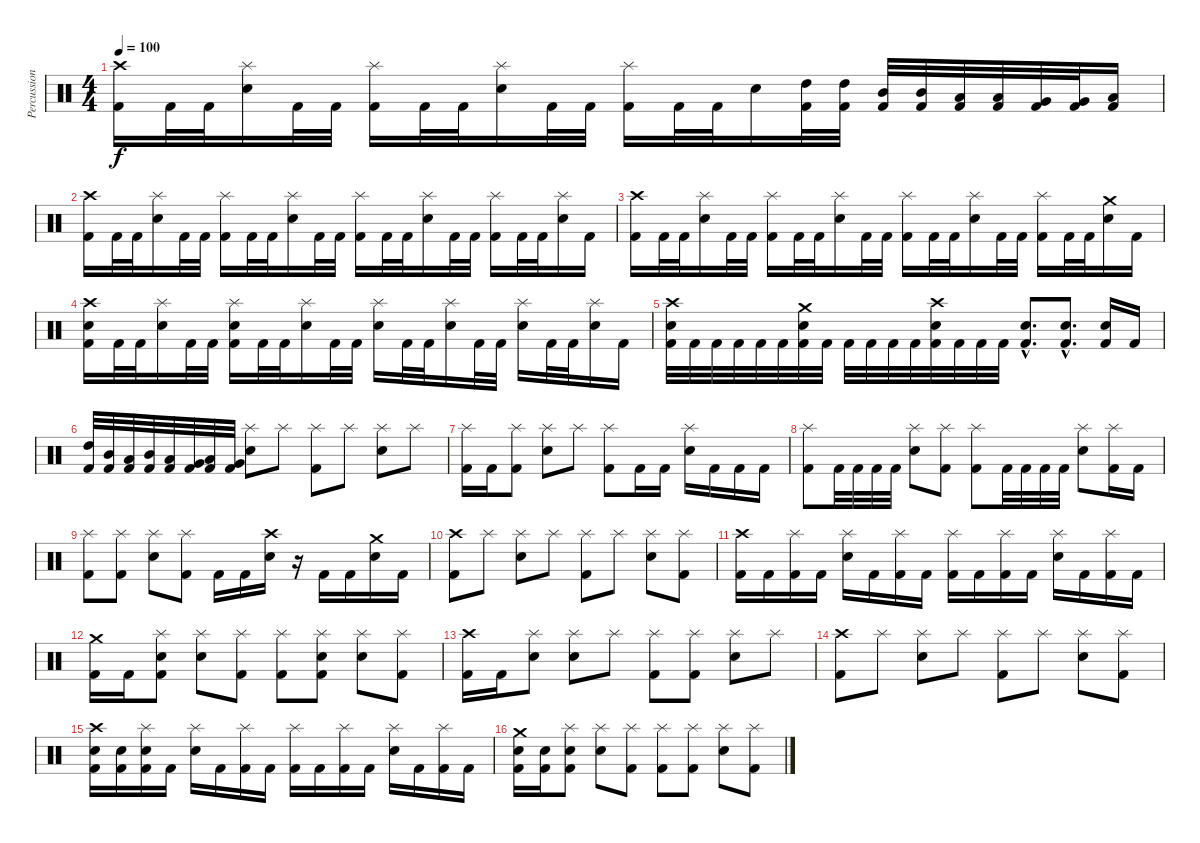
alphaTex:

\track ("Percussion" "Percussion") {instrument percussion}
\staff {score}
\articulation defaults
\ts (4 4)
\tempo 100
\clef neutral
\ks c
("Crash high (hit)" "Kick (hit) 2").16{dy f} "Kick (hit) 2".32 "Kick (hit) 2".32 ("Splash (hit)" "Electric Snare (hit)").16 "Kick (hit) 2".32 "Kick (hit) 2".32 ("Splash (hit)" "Kick (hit) 2").16 "Kick (hit) 2".32 "Kick (hit) 2".32 ("Splash (hit)" "Electric Snare (hit)").16 "Kick (hit) 2".32 "Kick (hit) 2".32 ("Splash (hit)" "Kick (hit) 2").16 "Kick (hit) 2".32 "Kick (hit) 2".32 "Electric Snare (hit)".16 ("High Tom (hit)" "Kick (hit) 2").32 ("High Tom (hit)" "Kick (hit) 2").32 ("Mid Tom (hit)" "Kick (hit) 2").32 ("Mid Tom (hit)" "Kick (hit) 2").32 ("Low Tom (hit)" "Kick (hit) 2").32 ("Low Tom (hit)" "Kick (hit) 2").32 ("Very Low Tom (hit)" "Kick (hit) 2").32 ("Very Low Tom (hit)" "Kick (hit) 2").32 ("Low Floor Tom (hit)" "Kick (hit) 2").16 |
("Crash high (hit)" "Kick (hit) 2").16 "Kick (hit) 2".32 "Kick (hit) 2".32 ("Splash (hit)" "Electric Snare (hit)").16 "Kick (hit) 2".32 "Kick (hit) 2".32 ("Splash (hit)" "Kick (hit) 2").16 "Kick (hit) 2".32 "Kick (hit) 2".32 ("Splash (hit)" "Electric Snare (hit)").16 "Kick (hit) 2".32 "Kick (hit) 2".32 ("Splash (hit)" "Kick (hit) 2").16 "Kick (hit) 2".32 "Kick (hit) 2".32 ("Splash (hit)" "Electric Snare (hit)").16 "Kick (hit) 2".32 "Kick (hit) 2".32 ("Splash (hit)" "Kick (hit) 2").16 "Kick (hit) 2".32 "Kick (hit) 2".32 ("Splash (hit)" "Electric Snare (hit)").16 "Kick (hit) 2".16 |
("Crash high (hit)" "Kick (hit) 2").16 "Kick (hit) 2".32 "Kick (hit) 2".32 ("Splash (hit)" "Electric Snare (hit)").16 "Kick (hit) 2".32 "Kick (hit) 2".32 ("Splash (hit)" "Kick (hit) 2").16 "Kick (hit) 2".32 "Kick (hit) 2".32 ("Splash (hit)" "Electric Snare (hit)").16 "Kick (hit) 2".32 "Kick (hit) 2".32 ("Splash (hit)" "Kick (hit) 2").16 "Kick (hit) 2".32 "Kick (hit) 2".32 ("Splash (hit)" "Electric Snare (hit)").16 "Kick (hit) 2".32 "Kick (hit) 2".32 ("Splash (hit)" "Kick (hit) 2").16 "Kick (hit) 2".32 "Kick (hit) 2".32 ("Crash medium (hit)" "Electric Snare (hit)").16 "Kick (hit) 2".16 |
("Crash high (hit)" "Electric Snare (hit)" "Kick (hit) 2").16 "Kick (hit) 2".32 "Kick (hit) 2".32 ("Splash (hit)" "Electric Snare (hit)").16 "Kick (hit) 2".32 "Kick (hit) 2".32 ("Splash (hit)" "Electric Snare (hit)" "Kick (hit) 2").16 "Kick (hit) 2".32 "Kick (hit) 2".32 ("Splash (hit)" "Electric Snare (hit)").16 "Kick (hit) 2".32 "Kick (hit) 2".32 ("Splash (hit)" "Electric Snare (hit)").16 "Kick (hit) 2".32 "Kick (hit) 2".32 ("Splash (hit)" "Electric Snare (hit)").16 "Kick (hit) 2".32 "Kick (hit) 2".32 ("Splash (hit)" "Electric Snare (hit)").16 "Kick (hit) 2".32 "Kick (hit) 2".32 ("Splash (hit)" "Electric Snare (hit)").16 "Kick (hit) 2".16 |
("Crash high (hit)" "Electric Snare (hit)" "Kick (hit) 2").32 "Kick (hit) 2".32 "Kick (hit) 2".32 "Kick (hit) 2".32 "Kick (hit) 2".32 "Kick (hit) 2".32 ("Crash medium (hit)" "Electric Snare (hit)" "Kick (hit) 2").32 "Kick (hit) 2".32 "Kick (hit) 2".32 "Kick (hit) 2".32 "Kick (hit) 2".32 "Kick (hit) 2".32 ("Crash high (hit)" "Electric Snare (hit)" "Kick (hit) 2").32 "Kick (hit) 2".32 "Kick (hit) 2".32 "Kick (hit) 2".32 ("Electric Snare (hit)"{hac} "Kick (hit) 2"{hac}).8{d} ("Electric Snare (hit)"{hac} "Kick (hit) 2"{hac}).8{d} ("Electric Snare (hit)" "Kick (hit) 2").16 "Kick (hit) 2".16 |
("High Tom (hit)" "Kick (hit) 2").32 ("Mid Tom (hit)" "Kick (hit) 2").32 ("Low Tom (hit)" "Kick (hit) 2").32 ("Mid Tom (hit)" "Kick (hit) 2").32 ("Low Tom (hit)" "Kick (hit) 2").32 ("Very Low Tom (hit)" "Kick (hit) 2").32 ("Low Tom (hit)" "Kick (hit) 2").32 ("Very Low Tom (hit)" "Kick (hit) 2").32 ("Splash (hit)" "Electric Snare (hit)").8 "Splash (hit)".8 ("Splash (hit)" "Kick (hit) 2").8 "Splash (hit)".8 ("Splash (hit)" "Electric Snare (hit)").8 "Splash (hit)".8 |
("Splash (hit)" "Kick (hit) 2").16 "Kick (hit) 2".16 ("Splash (hit)" "Kick (hit) 2").8 ("Splash (hit)" "Electric Snare (hit)").8 "Splash (hit)".8 ("Splash (hit)" "Kick (hit) 2").8 "Kick (hit) 2".16 "Kick (hit) 2".16 ("Splash (hit)" "Electric Snare (hit)").16 "Kick (hit) 2".16 "Kick (hit) 2".16 "Kick (hit) 2".16 |
("Splash (hit)" "Kick (hit) 2").8 "Kick (hit) 2".32 "Kick (hit) 2".32 "Kick (hit) 2".32 "Kick (hit) 2".32 ("Splash (hit)" "Electric Snare (hit)").8 ("Splash (hit)" "Kick (hit) 2").8 ("Splash (hit)" "Kick (hit) 2").8 "Kick (hit) 2".32 "Kick (hit) 2".32 "Kick (hit) 2".32 "Kick (hit) 2".32 ("Splash (hit)" "Electric Snare (hit)").8 ("Splash (hit)" "Kick (hit) 2").16 "Kick (hit) 2".16 |
("Splash (hit)" "Kick (hit) 2").8 ("Splash (hit)" "Kick (hit) 2").8 ("Splash (hit)" "Electric Snare (hit)").8 ("Splash (hit)" "Kick (hit) 2").8 "Kick (hit) 2".16 "Kick (hit) 2".16 ("Crash high (hit)" "Electric Snare (hit)").16 r.16 "Kick (hit) 2".16 "Kick (hit) 2".16 ("Crash medium (hit)" "Electric Snare (hit)").16 "Kick (hit) 2".16 |
("Crash high (hit)" "Kick (hit) 2").8 "Splash (hit)".8 ("Splash (hit)" "Electric Snare (hit)").8 "Splash (hit)".8 ("Splash (hit)" "Kick (hit) 2").8 "Splash (hit)".8 ("Splash (hit)" "Electric Snare (hit)").8 ("Splash (hit)" "Kick (hit) 2").8 |
("Crash high (hit)" "Kick (hit) 2").16 "Kick (hit) 2".16 ("Splash (hit)" "Kick (hit) 2").16 "Kick (hit) 2".16 ("Splash (hit)" "Electric Snare (hit)").16 "Kick (hit) 2".16 ("Splash (hit)" "Kick (hit) 2").16 "Kick (hit) 2".16 ("Splash (hit)" "Kick (hit) 2").16 "Kick (hit) 2".16 ("Splash (hit)" "Kick (hit) 2").16 "Kick (hit) 2".16 ("Splash (hit)" "Electric Snare (hit)").16 "Kick (hit) 2".16 ("Splash (hit)" "Kick (hit) 2").16 "Kick (hit) 2".16 |
("Crash medium (hit)" "Kick (hit) 2").16 "Kick (hit) 2".16 ("Splash (hit)" "Electric Snare (hit)" "Kick (hit) 2").8 ("Splash (hit)" "Electric Snare (hit)").8 ("Splash (hit)" "Kick (hit) 2").8 ("Splash (hit)" "Kick (hit) 2").8 ("Splash (hit)" "Electric Snare (hit)" "Kick (hit) 2").8 ("Splash (hit)" "Electric Snare (hit)").8 ("Splash (hit)" "Kick (hit) 2").8 |
("Crash high (hit)" "Kick (hit) 2").16 "Kick (hit) 2".16 ("Splash (hit)" "Electric Snare (hit)").8 ("Splash (hit)" "Electric Snare (hit)").8 "Splash (hit)".8 ("Splash (hit)" "Kick (hit) 2").8 ("Splash (hit)" "Kick (hit) 2").8 ("Splash (hit)" "Electric Snare (hit)").8 "Splash (hit)".8 |
("Crash high (hit)" "Kick (hit) 2").8 "Splash (hit)".8 ("Splash (hit)" "Electric Snare (hit)").8 "Splash (hit)".8 ("Splash (hit)" "Kick (hit) 2").8 "Splash (hit)".8 ("Splash (hit)" "Electric Snare (hit)").8 ("Splash (hit)" "Kick (hit) 2").8 |
("Crash high (hit)" "Electric Snare (hit)" "Kick (hit) 2").16 ("Electric Snare (hit)" "Kick (hit) 2").16 ("Splash (hit)" "Electric Snare (hit)" "Kick (hit) 2").16 "Kick (hit) 2".16 ("Splash (hit)" "Electric Snare (hit)").16 "Kick (hit) 2".16 ("Splash (hit)" "Kick (hit) 2").16 "Kick (hit) 2".16 ("Splash (hit)" "Kick (hit) 2").16 "Kick (hit) 2".16 ("Splash (hit)" "Kick (hit) 2").16 "Kick (hit) 2".16 ("Splash (hit)" "Electric Snare (hit)").16 "Kick (hit) 2".16 ("Splash (hit)" "Kick (hit) 2").16 "Kick (hit) 2".16 |
("Crash medium (hit)" "Electric Snare (hit)" "Kick (hit) 2").16 ("Electric Snare (hit)" "Kick (hit) 2").16 ("Splash (hit)" "Electric Snare (hit)" "Kick (hit) 2").8 ("Splash (hit)" "Electric Snare (hit)").8 ("Splash (hit)" "Kick (hit) 2").8 ("Splash (hit)" "Kick (hit) 2").8 ("Splash (hit)" "Kick (hit) 2").8 ("Splash (hit)" "Electric Snare (hit)").8 ("Splash (hit)" "Kick (hit) 2").8
